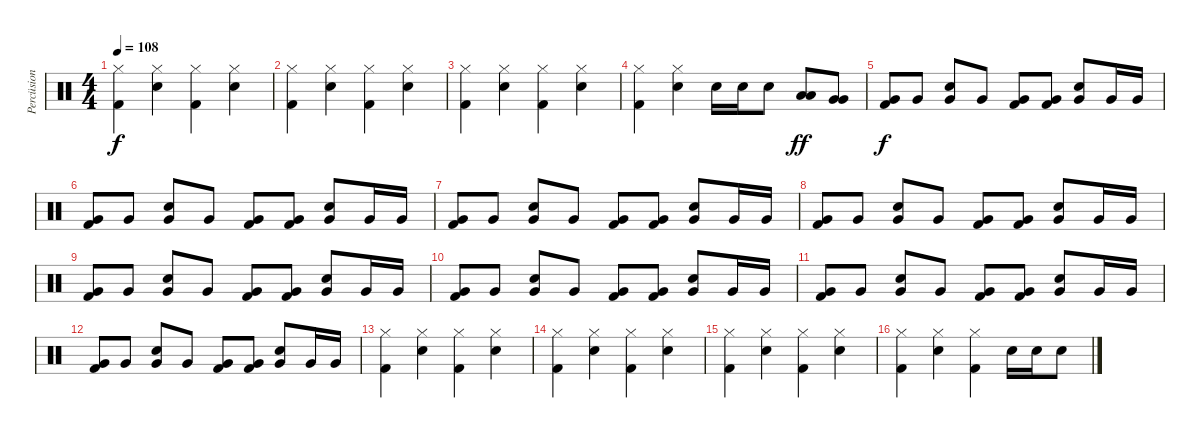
\track ("Percüsion" "Percüsion") {instrument percussion}
\staff {score}
\articulation defaults
\ts (4 4)
\tempo 108
\clef neutral
\ks c
("Hi-Hat (closed)" "Kick (hit) 2").4{dy f} ("Hi-Hat (closed)" "Snare (hit) 2").4 ("Hi-Hat (closed)" "Kick (hit) 2").4 ("Hi-Hat (closed)" "Snare (hit) 2").4 |
("Hi-Hat (closed)" "Kick (hit) 2").4 ("Hi-Hat (closed)" "Snare (hit) 2").4 ("Hi-Hat (closed)" "Kick (hit) 2").4 ("Hi-Hat (closed)" "Snare (hit) 2").4 |
("Hi-Hat (closed)" "Kick (hit) 2").4 ("Hi-Hat (closed)" "Snare (hit) 2").4 ("Hi-Hat (closed)" "Kick (hit) 2").4 ("Hi-Hat (closed)" "Snare (hit) 2").4 |
("Hi-Hat (closed)" "Kick (hit) 2").4 ("Hi-Hat (closed)" "Snare (hit) 2").4 "Snare (hit) 2".16 "Snare (hit) 2".16 "Snare (hit) 2".8 ("Low Tom (hit)" "Low Tom (hit)").8{dy ff} ("Very Low Tom (hit)" "Very Low Tom (hit)").8 |
("Very Low Tom (hit)" "Kick (hit) 2").8{dy f} "Very Low Tom (hit)".8 ("Snare (hit) 2" "Very Low Tom (hit)").8 "Very Low Tom (hit)".8 ("Very Low Tom (hit)" "Kick (hit) 2").8 ("Very Low Tom (hit)" "Kick (hit) 2").8 ("Snare (hit) 2" "Very Low Tom (hit)").8 "Very Low Tom (hit)".16 "Very Low Tom (hit)".16 |
("Very Low Tom (hit)" "Kick (hit) 2").8 "Very Low Tom (hit)".8 ("Snare (hit) 2" "Very Low Tom (hit)").8 "Very Low Tom (hit)".8 ("Very Low Tom (hit)" "Kick (hit) 2").8 ("Very Low Tom (hit)" "Kick (hit) 2").8 ("Snare (hit) 2" "Very Low Tom (hit)").8 "Very Low Tom (hit)".16 "Very Low Tom (hit)".16 |
("Very Low Tom (hit)" "Kick (hit) 2").8 "Very Low Tom (hit)".8 ("Snare (hit) 2" "Very Low Tom (hit)").8 "Very Low Tom (hit)".8 ("Very Low Tom (hit)" "Kick (hit) 2").8 ("Very Low Tom (hit)" "Kick (hit) 2").8 ("Snare (hit) 2" "Very Low Tom (hit)").8 "Very Low Tom (hit)".16 "Very Low Tom (hit)".16 |
("Very Low Tom (hit)" "Kick (hit) 2").8 "Very Low Tom (hit)".8 ("Snare (hit) 2" "Very Low Tom (hit)").8 "Very Low Tom (hit)".8 ("Very Low Tom (hit)" "Kick (hit) 2").8 ("Very Low Tom (hit)" "Kick (hit) 2").8 ("Snare (hit) 2" "Very Low Tom (hit)").8 "Very Low Tom (hit)".16 "Very Low Tom (hit)".16 |
("Very Low Tom (hit)" "Kick (hit) 2").8 "Very Low Tom (hit)".8 ("Snare (hit) 2" "Very Low Tom (hit)").8 "Very Low Tom (hit)".8 ("Very Low Tom (hit)" "Kick (hit) 2").8 ("Very Low Tom (hit)" "Kick (hit) 2").8 ("Snare (hit) 2" "Very Low Tom (hit)").8 "Very Low Tom (hit)".16 "Very Low Tom (hit)".16 |
("Very Low Tom (hit)" "Kick (hit) 2").8 "Very Low Tom (hit)".8 ("Snare (hit) 2" "Very Low Tom (hit)").8 "Very Low Tom (hit)".8 ("Very Low Tom (hit)" "Kick (hit) 2").8 ("Very Low Tom (hit)" "Kick (hit) 2").8 ("Snare (hit) 2" "Very Low Tom (hit)").8 "Very Low Tom (hit)".16 "Very Low Tom (hit)".16 |
("Very Low Tom (hit)" "Kick (hit) 2").8 "Very Low Tom (hit)".8 ("Snare (hit) 2" "Very Low Tom (hit)").8 "Very Low Tom (hit)".8 ("Very Low Tom (hit)" "Kick (hit) 2").8 ("Very Low Tom (hit)" "Kick (hit) 2").8 ("Snare (hit) 2" "Very Low Tom (hit)").8 "Very Low Tom (hit)".16 "Very Low Tom (hit)".16 |
("Very Low Tom (hit)" "Kick (hit) 2").8 "Very Low Tom (hit)".8 ("Snare (hit) 2" "Very Low Tom (hit)").8 "Very Low Tom (hit)".8 ("Very Low Tom (hit)" "Kick (hit) 2").8 ("Very Low Tom (hit)" "Kick (hit) 2").8 ("Snare (hit) 2" "Very Low Tom (hit)").8 "Very Low Tom (hit)".16 "Very Low Tom (hit)".16 |
("Hi-Hat (closed)" "Kick (hit) 2").4 ("Hi-Hat (closed)" "Snare (hit) 2").4 ("Hi-Hat (closed)" "Kick (hit) 2").4 ("Hi-Hat (closed)" "Snare (hit) 2").4 |
("Hi-Hat (closed)" "Kick (hit) 2").4 ("Hi-Hat (closed)" "Snare (hit) 2").4 ("Hi-Hat (closed)" "Kick (hit) 2").4 ("Hi-Hat (closed)" "Snare (hit) 2").4 |
("Hi-Hat (closed)" "Kick (hit) 2").4 ("Hi-Hat (closed)" "Snare (hit) 2").4 ("Hi-Hat (closed)" "Kick (hit) 2").4 ("Hi-Hat (closed)" "Snare (hit) 2").4 |
("Hi-Hat (closed)" "Kick (hit) 2").4 ("Hi-Hat (closed)" "Snare (hit) 2").4 ("Hi-Hat (closed)" "Kick (hit) 2").4 "Snare (hit) 2".16 "Snare (hit) 2".16 "Snare (hit) 2".8
